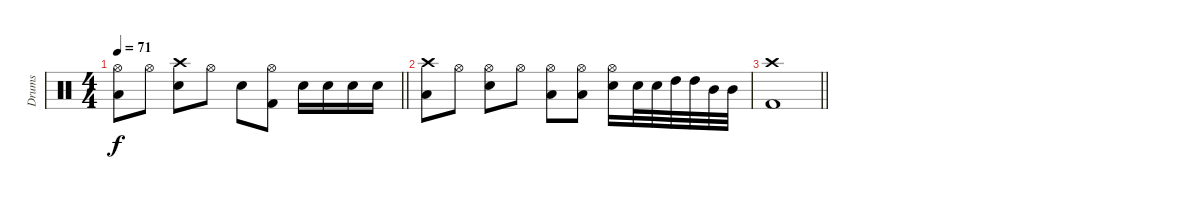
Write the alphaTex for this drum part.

\track ("Drums" "Drums") {instrument percussion}
\staff {score}
\articulation defaults
\ts (4 4)
\tempo 71
\clef neutral
\barLineRight lightlight
\ks c
("Hi-Hat (open)" "Low Floor Tom (hit)").8{dy f} "Hi-Hat (open)".8 ("Crash high (hit)" "Snare (hit) 2").8 "Hi-Hat (open)".8 "Snare (hit) 2".8 ("Kick (hit) 2" "Hi-Hat (open)").8 "Snare (hit) 2".16 "Snare (hit) 2".16 "Snare (hit) 2".16 "Snare (hit) 2".16 |
("Crash high (hit)" "Low Floor Tom (hit)").8 "Hi-Hat (open)".8 ("Hi-Hat (open)" "Snare (hit) 2").8 "Hi-Hat (open)".8 ("Hi-Hat (open)" "Low Floor Tom (hit)").8 ("Hi-Hat (open)" "Low Floor Tom (hit)").8 ("Hi-Hat (open)" "Snare (hit) 2").16 "Snare (hit) 2".32 "Snare (hit) 2".32 "High Tom (hit)".32 "High Tom (hit)".32 "Mid Tom (hit)".32 "Mid Tom (hit)".32 |
\barLineRight lightlight
("Kick (hit) 2" "Crash high (hit)").1
